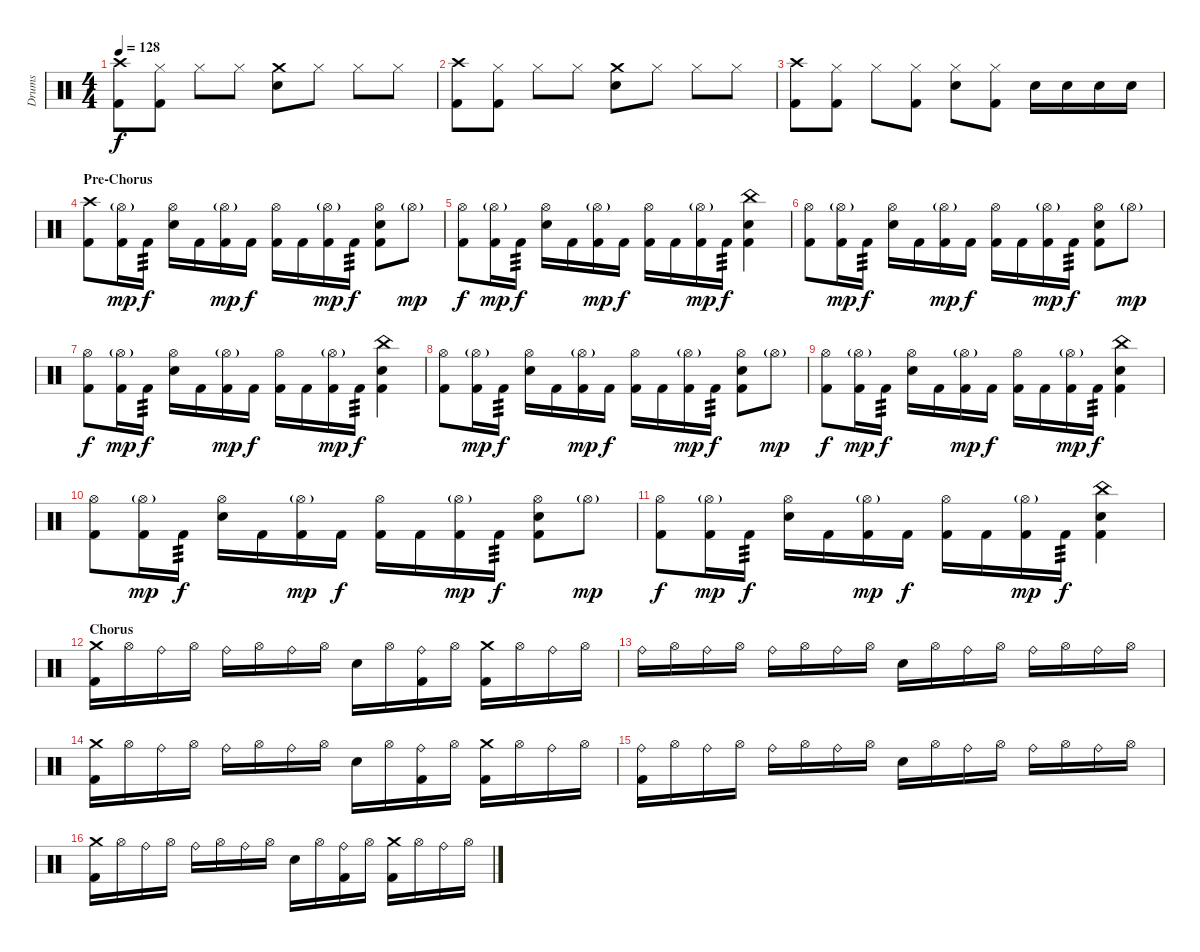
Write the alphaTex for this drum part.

\track ("Drums" "Drums") {instrument percussion}
\staff {score}
\articulation defaults
\ts (4 4)
\tempo 128
\clef neutral
\ks c
("Crash high (hit)" "Kick (hit) 2").8{dy f} ("Hi-Hat (closed)" "Kick (hit) 2").8 "Hi-Hat (closed)".8 "Hi-Hat (closed)".8 ("Crash medium (hit)" "Snare (hit) 2").8 "Hi-Hat (closed)".8 "Hi-Hat (closed)".8 "Hi-Hat (closed)".8 |
("Crash high (hit)" "Kick (hit) 2").8 ("Hi-Hat (closed)" "Kick (hit) 2").8 "Hi-Hat (closed)".8 "Hi-Hat (closed)".8 ("Crash medium (hit)" "Snare (hit) 2").8 "Hi-Hat (closed)".8 "Hi-Hat (closed)".8 "Hi-Hat (closed)".8 |
("Crash high (hit)" "Kick (hit) 2").8 ("Hi-Hat (closed)" "Kick (hit) 2").8 "Hi-Hat (closed)".8 ("Hi-Hat (closed)" "Kick (hit) 2").8 ("Hi-Hat (closed)" "Snare (hit) 2").8 ("Hi-Hat (closed)" "Kick (hit) 2").8 "Snare (hit) 2".16 "Snare (hit) 2".16 "Snare (hit) 2".16 "Snare (hit) 2".16 |
\section ("" "Pre-Chorus")
("Crash high (hit)" "Kick (hit) 2").8 ("Hi-Hat (open)"{g} "Kick (hit) 2").16{dy mp} "Kick (hit) 2".16{tp 3 dy f} ("Hi-Hat (open)" "Snare (hit) 2").16 "Kick (hit) 2".16 ("Hi-Hat (open)"{g} "Kick (hit) 2").16{dy mp} "Kick (hit) 2".16{dy f} ("Hi-Hat (open)" "Kick (hit) 2").16 "Kick (hit) 2".16 ("Hi-Hat (open)"{g} "Kick (hit) 2").16{dy mp} "Kick (hit) 2".16{tp 3 dy f} ("Hi-Hat (open)" "Snare (hit) 2" "Kick (hit) 2").8 "Hi-Hat (open)"{g}.8{dy mp} |
("Hi-Hat (open)" "Kick (hit) 2").8{dy f} ("Hi-Hat (open)"{g} "Kick (hit) 2").16{dy mp} "Kick (hit) 2".16{tp 3 dy f} ("Hi-Hat (open)" "Snare (hit) 2").16 "Kick (hit) 2".16 ("Hi-Hat (open)"{g} "Kick (hit) 2").16{dy mp} "Kick (hit) 2".16{dy f} ("Hi-Hat (open)" "Kick (hit) 2").16 "Kick (hit) 2".16 ("Hi-Hat (open)"{g} "Kick (hit) 2").16{dy mp} "Kick (hit) 2".16{tp 3 dy f} ("China (hit)" "Snare (hit) 2" "Kick (hit) 2").4 |
("Hi-Hat (open)" "Kick (hit) 2").8 ("Hi-Hat (open)"{g} "Kick (hit) 2").16{dy mp} "Kick (hit) 2".16{tp 3 dy f} ("Hi-Hat (open)" "Snare (hit) 2").16 "Kick (hit) 2".16 ("Hi-Hat (open)"{g} "Kick (hit) 2").16{dy mp} "Kick (hit) 2".16{dy f} ("Hi-Hat (open)" "Kick (hit) 2").16 "Kick (hit) 2".16 ("Hi-Hat (open)"{g} "Kick (hit) 2").16{dy mp} "Kick (hit) 2".16{tp 3 dy f} ("Hi-Hat (open)" "Snare (hit) 2" "Kick (hit) 2").8 "Hi-Hat (open)"{g}.8{dy mp} |
("Hi-Hat (open)" "Kick (hit) 2").8{dy f} ("Hi-Hat (open)"{g} "Kick (hit) 2").16{dy mp} "Kick (hit) 2".16{tp 3 dy f} ("Hi-Hat (open)" "Snare (hit) 2").16 "Kick (hit) 2".16 ("Hi-Hat (open)"{g} "Kick (hit) 2").16{dy mp} "Kick (hit) 2".16{dy f} ("Hi-Hat (open)" "Kick (hit) 2").16 "Kick (hit) 2".16 ("Hi-Hat (open)"{g} "Kick (hit) 2").16{dy mp} "Kick (hit) 2".16{tp 3 dy f} ("China (hit)" "Snare (hit) 2" "Kick (hit) 2").4 |
("Hi-Hat (open)" "Kick (hit) 2").8 ("Hi-Hat (open)"{g} "Kick (hit) 2").16{dy mp} "Kick (hit) 2".16{tp 3 dy f} ("Hi-Hat (open)" "Snare (hit) 2").16 "Kick (hit) 2".16 ("Hi-Hat (open)"{g} "Kick (hit) 2").16{dy mp} "Kick (hit) 2".16{dy f} ("Hi-Hat (open)" "Kick (hit) 2").16 "Kick (hit) 2".16 ("Hi-Hat (open)"{g} "Kick (hit) 2").16{dy mp} "Kick (hit) 2".16{tp 3 dy f} ("Hi-Hat (open)" "Snare (hit) 2" "Kick (hit) 2").8 "Hi-Hat (open)"{g}.8{dy mp} |
("Hi-Hat (open)" "Kick (hit) 2").8{dy f} ("Hi-Hat (open)"{g} "Kick (hit) 2").16{dy mp} "Kick (hit) 2".16{tp 3 dy f} ("Hi-Hat (open)" "Snare (hit) 2").16 "Kick (hit) 2".16 ("Hi-Hat (open)"{g} "Kick (hit) 2").16{dy mp} "Kick (hit) 2".16{dy f} ("Hi-Hat (open)" "Kick (hit) 2").16 "Kick (hit) 2".16 ("Hi-Hat (open)"{g} "Kick (hit) 2").16{dy mp} "Kick (hit) 2".16{tp 3 dy f} ("China (hit)" "Snare (hit) 2" "Kick (hit) 2").4 |
("Hi-Hat (open)" "Kick (hit) 2").8 ("Hi-Hat (open)"{g} "Kick (hit) 2").16{dy mp} "Kick (hit) 2".16{tp 3 dy f} ("Hi-Hat (open)" "Snare (hit) 2").16 "Kick (hit) 2".16 ("Hi-Hat (open)"{g} "Kick (hit) 2").16{dy mp} "Kick (hit) 2".16{dy f} ("Hi-Hat (open)" "Kick (hit) 2").16 "Kick (hit) 2".16 ("Hi-Hat (open)"{g} "Kick (hit) 2").16{dy mp} "Kick (hit) 2".16{tp 3 dy f} ("Hi-Hat (open)" "Snare (hit) 2" "Kick (hit) 2").8 "Hi-Hat (open)"{g}.8{dy mp} |
("Hi-Hat (open)" "Kick (hit) 2").8{dy f} ("Hi-Hat (open)"{g} "Kick (hit) 2").16{dy mp} "Kick (hit) 2".16{tp 3 dy f} ("Hi-Hat (open)" "Snare (hit) 2").16 "Kick (hit) 2".16 ("Hi-Hat (open)"{g} "Kick (hit) 2").16{dy mp} "Kick (hit) 2".16{dy f} ("Hi-Hat (open)" "Kick (hit) 2").16 "Kick (hit) 2".16 ("Hi-Hat (open)"{g} "Kick (hit) 2").16{dy mp} "Kick (hit) 2".16{tp 3 dy f} ("China (hit)" "Snare (hit) 2" "Kick (hit) 2").4 |
\section ("" "Chorus")
("Crash medium (hit)" "Kick (hit) 2").16 "Hi-Hat (open)".16 "Ride (bell)".16 "Hi-Hat (open)".16 "Ride (bell)".16 "Hi-Hat (open)".16 "Ride (bell)".16 "Hi-Hat (open)".16 "Snare (hit) 2".16 "Hi-Hat (open)".16 ("Ride (bell)" "Kick (hit) 2").16 "Hi-Hat (open)".16 ("Crash medium (hit)" "Kick (hit) 2").16 "Hi-Hat (open)".16 "Ride (bell)".16 "Hi-Hat (open)".16 |
"Ride (bell)".16 "Hi-Hat (open)".16 "Ride (bell)".16 "Hi-Hat (open)".16 "Ride (bell)".16 "Hi-Hat (open)".16 "Ride (bell)".16 "Hi-Hat (open)".16 "Snare (hit) 2".16 "Hi-Hat (open)".16 "Ride (bell)".16 "Hi-Hat (open)".16 "Ride (bell)".16 "Hi-Hat (open)".16 "Ride (bell)".16 "Hi-Hat (open)".16 |
("Crash medium (hit)" "Kick (hit) 2").16 "Hi-Hat (open)".16 "Ride (bell)".16 "Hi-Hat (open)".16 "Ride (bell)".16 "Hi-Hat (open)".16 "Ride (bell)".16 "Hi-Hat (open)".16 "Snare (hit) 2".16 "Hi-Hat (open)".16 ("Ride (bell)" "Kick (hit) 2").16 "Hi-Hat (open)".16 ("Crash medium (hit)" "Kick (hit) 2").16 "Hi-Hat (open)".16 "Ride (bell)".16 "Hi-Hat (open)".16 |
("Ride (bell)" "Kick (hit) 2").16 "Hi-Hat (open)".16 "Ride (bell)".16 "Hi-Hat (open)".16 "Ride (bell)".16 "Hi-Hat (open)".16 "Ride (bell)".16 "Hi-Hat (open)".16 "Snare (hit) 2".16 "Hi-Hat (open)".16 "Ride (bell)".16 "Hi-Hat (open)".16 "Ride (bell)".16 "Hi-Hat (open)".16 "Ride (bell)".16 "Hi-Hat (open)".16 |
("Crash medium (hit)" "Kick (hit) 2").16 "Hi-Hat (open)".16 "Ride (bell)".16 "Hi-Hat (open)".16 "Ride (bell)".16 "Hi-Hat (open)".16 "Ride (bell)".16 "Hi-Hat (open)".16 "Snare (hit) 2".16 "Hi-Hat (open)".16 ("Ride (bell)" "Kick (hit) 2").16 "Hi-Hat (open)".16 ("Crash medium (hit)" "Kick (hit) 2").16 "Hi-Hat (open)".16 "Ride (bell)".16 "Hi-Hat (open)".16
